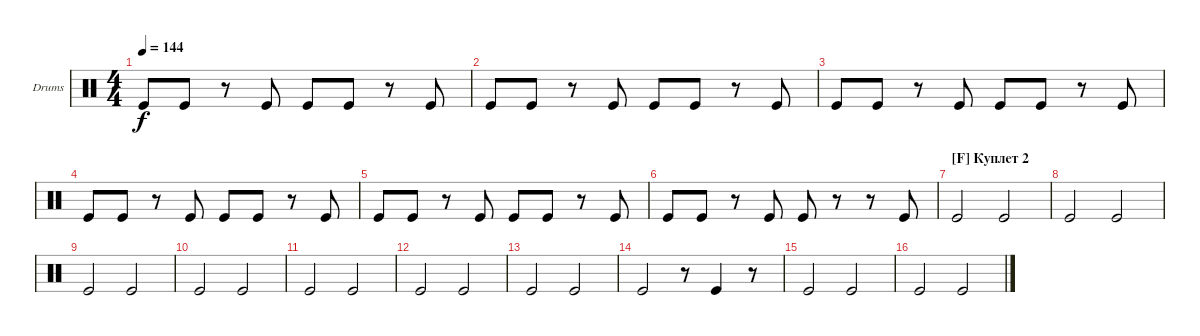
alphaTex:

\defaultSystemsLayout 4
\bracketExtendMode groupsimilarinstruments
\firstSystemTrackNameOrientation horizontal
\otherSystemsTrackNameOrientation horizontal
\track ("Kick" "Drums") {instrument percussion}
\staff {score}
\articulation defaults
\ts (4 4)
\tempo 144
\clef neutral
\ks c "Kick (hit)".8{dy f} "Kick (hit)".8
r.8 "Kick (hit)".8 "Kick (hit)".8 "Kick (hit)".8 r.8 "Kick (hit)".8 |
"Kick (hit)".8 "Kick (hit)".8 r.8 "Kick (hit)".8 "Kick (hit)".8 "Kick (hit)".8 r.8 "Kick (hit)".8 |
"Kick (hit)".8 "Kick (hit)".8 r.8 "Kick (hit)".8 "Kick (hit)".8 "Kick (hit)".8 r.8 "Kick (hit)".8 |
"Kick (hit)".8 "Kick (hit)".8 r.8 "Kick (hit)".8 "Kick (hit)".8 "Kick (hit)".8 r.8 "Kick (hit)".8 |
"Kick (hit)".8 "Kick (hit)".8 r.8 "Kick (hit)".8 "Kick (hit)".8 "Kick (hit)".8 r.8 "Kick (hit)".8 |
"Kick (hit)".8 "Kick (hit)".8 r.8 "Kick (hit)".8 "Kick (hit)".8 r.8 r.8 "Kick (hit)".8 |
\section ("F" "Куплет 2")
"Kick (hit)".2 "Kick (hit)".2 |
"Kick (hit)".2 "Kick (hit)".2 |
"Kick (hit)".2 "Kick (hit)".2 |
"Kick (hit)".2 "Kick (hit)".2 |
"Kick (hit)".2 "Kick (hit)".2 |
"Kick (hit)".2 "Kick (hit)".2 |
"Kick (hit)".2 "Kick (hit)".2 |
"Kick (hit)".2 r.8 "Kick (hit)".4 r.8 |
"Kick (hit)".2 "Kick (hit)".2 |
"Kick (hit)".2 "Kick (hit)".2
